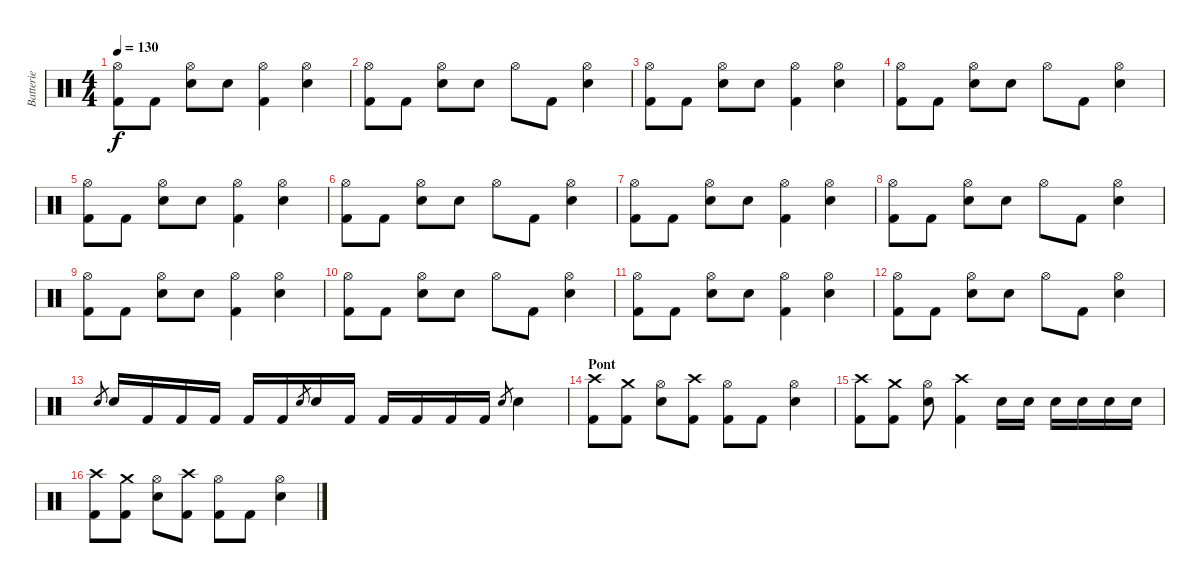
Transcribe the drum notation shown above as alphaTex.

\track ("Batterie" "Batterie") {instrument percussion}
\staff {score}
\articulation defaults
\ts (4 4)
\tempo 130
\clef neutral
\ks c
("Hi-Hat (open)" "Kick (hit) 2").8{dy f} "Kick (hit) 2".8 ("Hi-Hat (open)" "Snare (hit) 2").8 "Snare (hit) 2".8 ("Hi-Hat (open)" "Kick (hit) 2").4 ("Hi-Hat (open)" "Snare (hit) 2").4 |
("Hi-Hat (open)" "Kick (hit) 2").8 "Kick (hit) 2".8 ("Hi-Hat (open)" "Snare (hit) 2").8 "Snare (hit) 2".8 "Hi-Hat (open)".8 "Kick (hit) 2".8 ("Hi-Hat (open)" "Snare (hit) 2").4 |
("Hi-Hat (open)" "Kick (hit) 2").8 "Kick (hit) 2".8 ("Hi-Hat (open)" "Snare (hit) 2").8 "Snare (hit) 2".8 ("Hi-Hat (open)" "Kick (hit) 2").4 ("Hi-Hat (open)" "Snare (hit) 2").4 |
("Hi-Hat (open)" "Kick (hit) 2").8 "Kick (hit) 2".8 ("Hi-Hat (open)" "Snare (hit) 2").8 "Snare (hit) 2".8 "Hi-Hat (open)".8 "Kick (hit) 2".8 ("Hi-Hat (open)" "Snare (hit) 2").4 |
("Hi-Hat (open)" "Kick (hit) 2").8 "Kick (hit) 2".8 ("Hi-Hat (open)" "Snare (hit) 2").8 "Snare (hit) 2".8 ("Hi-Hat (open)" "Kick (hit) 2").4 ("Hi-Hat (open)" "Snare (hit) 2").4 |
("Hi-Hat (open)" "Kick (hit) 2").8 "Kick (hit) 2".8 ("Hi-Hat (open)" "Snare (hit) 2").8 "Snare (hit) 2".8 "Hi-Hat (open)".8 "Kick (hit) 2".8 ("Hi-Hat (open)" "Snare (hit) 2").4 |
("Hi-Hat (open)" "Kick (hit) 2").8 "Kick (hit) 2".8 ("Hi-Hat (open)" "Snare (hit) 2").8 "Snare (hit) 2".8 ("Hi-Hat (open)" "Kick (hit) 2").4 ("Hi-Hat (open)" "Snare (hit) 2").4 |
("Hi-Hat (open)" "Kick (hit) 2").8 "Kick (hit) 2".8 ("Hi-Hat (open)" "Snare (hit) 2").8 "Snare (hit) 2".8 "Hi-Hat (open)".8 "Kick (hit) 2".8 ("Hi-Hat (open)" "Snare (hit) 2").4 |
("Hi-Hat (open)" "Kick (hit) 2").8 "Kick (hit) 2".8 ("Hi-Hat (open)" "Snare (hit) 2").8 "Snare (hit) 2".8 ("Hi-Hat (open)" "Kick (hit) 2").4 ("Hi-Hat (open)" "Snare (hit) 2").4 |
("Hi-Hat (open)" "Kick (hit) 2").8 "Kick (hit) 2".8 ("Hi-Hat (open)" "Snare (hit) 2").8 "Snare (hit) 2".8 "Hi-Hat (open)".8 "Kick (hit) 2".8 ("Hi-Hat (open)" "Snare (hit) 2").4 |
("Hi-Hat (open)" "Kick (hit) 2").8 "Kick (hit) 2".8 ("Hi-Hat (open)" "Snare (hit) 2").8 "Snare (hit) 2".8 ("Hi-Hat (open)" "Kick (hit) 2").4 ("Hi-Hat (open)" "Snare (hit) 2").4 |
("Hi-Hat (open)" "Kick (hit) 2").8 "Kick (hit) 2".8 ("Hi-Hat (open)" "Snare (hit) 2").8 "Snare (hit) 2".8 "Hi-Hat (open)".8 "Kick (hit) 2".8 ("Hi-Hat (open)" "Snare (hit) 2").4 |
"Snare (hit) 2".8{gr} "Snare (hit) 2".16 "Kick (hit) 2".16 "Kick (hit) 2".16 "Kick (hit) 2".16 "Kick (hit) 2".16 "Kick (hit) 2".16 "Snare (hit) 2".8{gr} "Snare (hit) 2".16 "Kick (hit) 2".16 "Kick (hit) 2".16 "Kick (hit) 2".16 "Kick (hit) 2".16 "Kick (hit) 2".16 "Snare (hit) 2".8{gr} "Snare (hit) 2".4 |
\section ("" "Pont")
("Crash high (hit)" "Kick (hit) 2").8 ("Crash medium (hit)" "Kick (hit) 2").8 ("Hi-Hat (open)" "Snare (hit) 2").8 ("Crash high (hit)" "Kick (hit) 2").8 ("Hi-Hat (open)" "Kick (hit) 2").8 "Kick (hit) 2".8 ("Hi-Hat (open)" "Snare (hit) 2").4 |
("Crash high (hit)" "Kick (hit) 2").8 ("Crash medium (hit)" "Kick (hit) 2").8 ("Hi-Hat (open)" "Snare (hit) 2").8 ("Crash high (hit)" "Kick (hit) 2").4 "Snare (hit) 2".16 "Snare (hit) 2".16 "Snare (hit) 2".16 "Snare (hit) 2".16 "Snare (hit) 2".16 "Snare (hit) 2".16 |
("Crash high (hit)" "Kick (hit) 2").8 ("Crash medium (hit)" "Kick (hit) 2").8 ("Hi-Hat (open)" "Snare (hit) 2").8 ("Crash high (hit)" "Kick (hit) 2").8 ("Hi-Hat (open)" "Kick (hit) 2").8 "Kick (hit) 2".8 ("Hi-Hat (open)" "Snare (hit) 2").4
